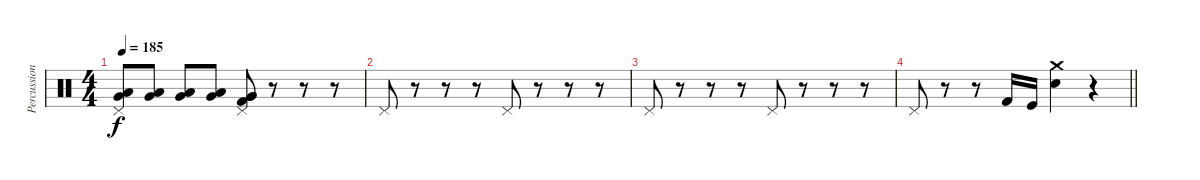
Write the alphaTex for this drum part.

\track ("Percussion" "Percussion") {instrument percussion}
\staff {score}
\articulation defaults
\ts (4 4)
\tempo 185
\clef neutral
\ks c
("Pedal Hi-Hat (hit)" "Low Floor Tom (hit)" "Very Low Tom (hit)").8{dy f} ("Low Floor Tom (hit)" "Very Low Tom (hit)").8 ("Low Floor Tom (hit)" "Very Low Tom (hit)").8 ("Low Floor Tom (hit)" "Very Low Tom (hit)").8 ("Pedal Hi-Hat (hit)" "Very Low Tom (hit)" "Very Low Tom (hit)" "Kick (hit) 2").8 r.8 r.8 r.8 |
"Pedal Hi-Hat (hit)".8 r.8 r.8 r.8 "Pedal Hi-Hat (hit)".8 r.8 r.8 r.8 |
"Pedal Hi-Hat (hit)".8 r.8 r.8 r.8 "Pedal Hi-Hat (hit)".8 r.8 r.8 r.8 |
\barLineRight lightlight "Pedal Hi-Hat (hit)".8
r.8 r.8 "Kick (hit) 2".16 "Kick (hit)".16 ("Crash medium (hit)" "Electric Snare (hit)").4 r.4
